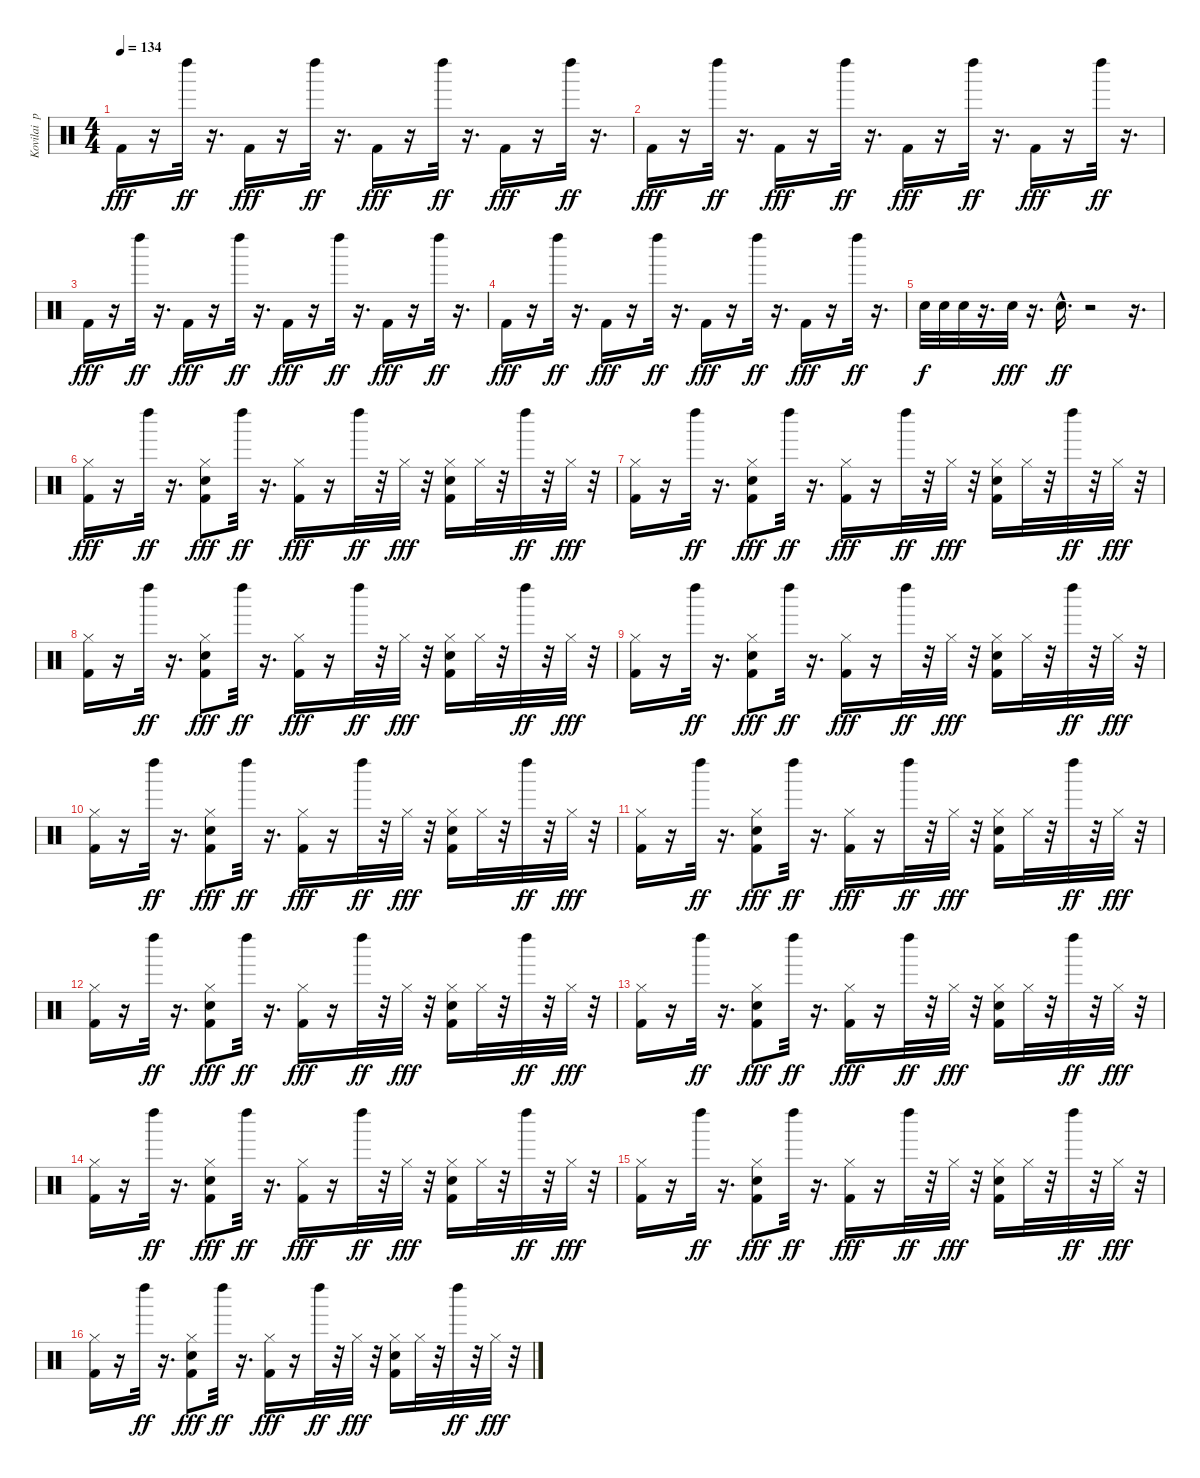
\track ("Kovilai  po tihonechky:" "Kovilai  p") {instrument percussion}
\staff {score}
\articulation defaults
\ts (4 4)
\tempo 134
\clef neutral
\ks c "Kick (hit) 2".16{dy fff}
r.16 "Left Maraca (hit)".32{dy ff} r.16{d} "Kick (hit) 2".16{dy fff} r.16 "Left Maraca (hit)".32{dy ff} r.16{d} "Kick (hit) 2".16{dy fff} r.16 "Left Maraca (hit)".32{dy ff} r.16{d} "Kick (hit) 2".16{dy fff} r.16 "Left Maraca (hit)".32{dy ff} r.16{d} |
"Kick (hit) 2".16{dy fff} r.16 "Left Maraca (hit)".32{dy ff} r.16{d} "Kick (hit) 2".16{dy fff} r.16 "Left Maraca (hit)".32{dy ff} r.16{d} "Kick (hit) 2".16{dy fff} r.16 "Left Maraca (hit)".32{dy ff} r.16{d} "Kick (hit) 2".16{dy fff} r.16 "Left Maraca (hit)".32{dy ff} r.16{d} |
"Kick (hit) 2".16{dy fff} r.16 "Left Maraca (hit)".32{dy ff} r.16{d} "Kick (hit) 2".16{dy fff} r.16 "Left Maraca (hit)".32{dy ff} r.16{d} "Kick (hit) 2".16{dy fff} r.16 "Left Maraca (hit)".32{dy ff} r.16{d} "Kick (hit) 2".16{dy fff} r.16 "Left Maraca (hit)".32{dy ff} r.16{d} |
"Kick (hit) 2".16{dy fff} r.16 "Left Maraca (hit)".32{dy ff} r.16{d} "Kick (hit) 2".16{dy fff} r.16 "Left Maraca (hit)".32{dy ff} r.16{d} "Kick (hit) 2".16{dy fff} r.16 "Left Maraca (hit)".32{dy ff} r.16{d} "Kick (hit) 2".16{dy fff} r.16 "Left Maraca (hit)".32{dy ff} r.16{d} |
"Snare (hit) 2".32{dy f} "Snare (hit) 2".32 "Snare (hit) 2".32 r.16{d} "Snare (hit) 2".32{dy fff} r.16{d} "Snare (hit) 2"{hac}.16{d dy ff} r.2 r.16{d} |
("Hi-Hat (closed)" "Kick (hit) 2").16{dy fff} r.16 "Left Maraca (hit)".32{dy ff} r.16{d} ("Snare (hit) 2" "Hi-Hat (closed)" "Kick (hit) 2").8{dy fff} "Left Maraca (hit)".32{dy ff} r.16{d} ("Hi-Hat (closed)" "Kick (hit) 2").16{dy fff} r.16 "Left Maraca (hit)".32{dy ff} r.32 "Hi-Hat (closed)".32{dy fff} r.32 ("Hi-Hat (closed)" "Snare (hit) 2" "Kick (hit) 2").16 "Hi-Hat (closed)".32 r.32 "Left Maraca (hit)".32{dy ff} r.32 "Hi-Hat (closed)".32{dy fff} r.32 |
("Hi-Hat (closed)" "Kick (hit) 2").16 r.16 "Left Maraca (hit)".32{dy ff} r.16{d} ("Snare (hit) 2" "Hi-Hat (closed)" "Kick (hit) 2").8{dy fff} "Left Maraca (hit)".32{dy ff} r.16{d} ("Hi-Hat (closed)" "Kick (hit) 2").16{dy fff} r.16 "Left Maraca (hit)".32{dy ff} r.32 "Hi-Hat (closed)".32{dy fff} r.32 ("Hi-Hat (closed)" "Snare (hit) 2" "Kick (hit) 2").16 "Hi-Hat (closed)".32 r.32 "Left Maraca (hit)".32{dy ff} r.32 "Hi-Hat (closed)".32{dy fff} r.32 |
("Hi-Hat (closed)" "Kick (hit) 2").16 r.16 "Left Maraca (hit)".32{dy ff} r.16{d} ("Snare (hit) 2" "Hi-Hat (closed)" "Kick (hit) 2").8{dy fff} "Left Maraca (hit)".32{dy ff} r.16{d} ("Hi-Hat (closed)" "Kick (hit) 2").16{dy fff} r.16 "Left Maraca (hit)".32{dy ff} r.32 "Hi-Hat (closed)".32{dy fff} r.32 ("Hi-Hat (closed)" "Snare (hit) 2" "Kick (hit) 2").16 "Hi-Hat (closed)".32 r.32 "Left Maraca (hit)".32{dy ff} r.32 "Hi-Hat (closed)".32{dy fff} r.32 |
("Hi-Hat (closed)" "Kick (hit) 2").16 r.16 "Left Maraca (hit)".32{dy ff} r.16{d} ("Snare (hit) 2" "Hi-Hat (closed)" "Kick (hit) 2").8{dy fff} "Left Maraca (hit)".32{dy ff} r.16{d} ("Hi-Hat (closed)" "Kick (hit) 2").16{dy fff} r.16 "Left Maraca (hit)".32{dy ff} r.32 "Hi-Hat (closed)".32{dy fff} r.32 ("Hi-Hat (closed)" "Snare (hit) 2" "Kick (hit) 2").16 "Hi-Hat (closed)".32 r.32 "Left Maraca (hit)".32{dy ff} r.32 "Hi-Hat (closed)".32{dy fff} r.32 |
("Hi-Hat (closed)" "Kick (hit) 2").16 r.16 "Left Maraca (hit)".32{dy ff} r.16{d} ("Snare (hit) 2" "Hi-Hat (closed)" "Kick (hit) 2").8{dy fff} "Left Maraca (hit)".32{dy ff} r.16{d} ("Hi-Hat (closed)" "Kick (hit) 2").16{dy fff} r.16 "Left Maraca (hit)".32{dy ff} r.32 "Hi-Hat (closed)".32{dy fff} r.32 ("Hi-Hat (closed)" "Snare (hit) 2" "Kick (hit) 2").16 "Hi-Hat (closed)".32 r.32 "Left Maraca (hit)".32{dy ff} r.32 "Hi-Hat (closed)".32{dy fff} r.32 |
("Hi-Hat (closed)" "Kick (hit) 2").16 r.16 "Left Maraca (hit)".32{dy ff} r.16{d} ("Snare (hit) 2" "Hi-Hat (closed)" "Kick (hit) 2").8{dy fff} "Left Maraca (hit)".32{dy ff} r.16{d} ("Hi-Hat (closed)" "Kick (hit) 2").16{dy fff} r.16 "Left Maraca (hit)".32{dy ff} r.32 "Hi-Hat (closed)".32{dy fff} r.32 ("Hi-Hat (closed)" "Snare (hit) 2" "Kick (hit) 2").16 "Hi-Hat (closed)".32 r.32 "Left Maraca (hit)".32{dy ff} r.32 "Hi-Hat (closed)".32{dy fff} r.32 |
("Hi-Hat (closed)" "Kick (hit) 2").16 r.16 "Left Maraca (hit)".32{dy ff} r.16{d} ("Snare (hit) 2" "Hi-Hat (closed)" "Kick (hit) 2").8{dy fff} "Left Maraca (hit)".32{dy ff} r.16{d} ("Hi-Hat (closed)" "Kick (hit) 2").16{dy fff} r.16 "Left Maraca (hit)".32{dy ff} r.32 "Hi-Hat (closed)".32{dy fff} r.32 ("Hi-Hat (closed)" "Snare (hit) 2" "Kick (hit) 2").16 "Hi-Hat (closed)".32 r.32 "Left Maraca (hit)".32{dy ff} r.32 "Hi-Hat (closed)".32{dy fff} r.32 |
("Hi-Hat (closed)" "Kick (hit) 2").16 r.16 "Left Maraca (hit)".32{dy ff} r.16{d} ("Snare (hit) 2" "Hi-Hat (closed)" "Kick (hit) 2").8{dy fff} "Left Maraca (hit)".32{dy ff} r.16{d} ("Hi-Hat (closed)" "Kick (hit) 2").16{dy fff} r.16 "Left Maraca (hit)".32{dy ff} r.32 "Hi-Hat (closed)".32{dy fff} r.32 ("Hi-Hat (closed)" "Snare (hit) 2" "Kick (hit) 2").16 "Hi-Hat (closed)".32 r.32 "Left Maraca (hit)".32{dy ff} r.32 "Hi-Hat (closed)".32{dy fff} r.32 |
("Hi-Hat (closed)" "Kick (hit) 2").16 r.16 "Left Maraca (hit)".32{dy ff} r.16{d} ("Snare (hit) 2" "Hi-Hat (closed)" "Kick (hit) 2").8{dy fff} "Left Maraca (hit)".32{dy ff} r.16{d} ("Hi-Hat (closed)" "Kick (hit) 2").16{dy fff} r.16 "Left Maraca (hit)".32{dy ff} r.32 "Hi-Hat (closed)".32{dy fff} r.32 ("Hi-Hat (closed)" "Snare (hit) 2" "Kick (hit) 2").16 "Hi-Hat (closed)".32 r.32 "Left Maraca (hit)".32{dy ff} r.32 "Hi-Hat (closed)".32{dy fff} r.32 |
("Hi-Hat (closed)" "Kick (hit) 2").16 r.16 "Left Maraca (hit)".32{dy ff} r.16{d} ("Snare (hit) 2" "Hi-Hat (closed)" "Kick (hit) 2").8{dy fff} "Left Maraca (hit)".32{dy ff} r.16{d} ("Hi-Hat (closed)" "Kick (hit) 2").16{dy fff} r.16 "Left Maraca (hit)".32{dy ff} r.32 "Hi-Hat (closed)".32{dy fff} r.32 ("Hi-Hat (closed)" "Snare (hit) 2" "Kick (hit) 2").16 "Hi-Hat (closed)".32 r.32 "Left Maraca (hit)".32{dy ff} r.32 "Hi-Hat (closed)".32{dy fff} r.32 |
("Hi-Hat (closed)" "Kick (hit) 2").16 r.16 "Left Maraca (hit)".32{dy ff} r.16{d} ("Snare (hit) 2" "Hi-Hat (closed)" "Kick (hit) 2").8{dy fff} "Left Maraca (hit)".32{dy ff} r.16{d} ("Hi-Hat (closed)" "Kick (hit) 2").16{dy fff} r.16 "Left Maraca (hit)".32{dy ff} r.32 "Hi-Hat (closed)".32{dy fff} r.32 ("Hi-Hat (closed)" "Snare (hit) 2" "Kick (hit) 2").16 "Hi-Hat (closed)".32 r.32 "Left Maraca (hit)".32{dy ff} r.32 "Hi-Hat (closed)".32{dy fff} r.32
